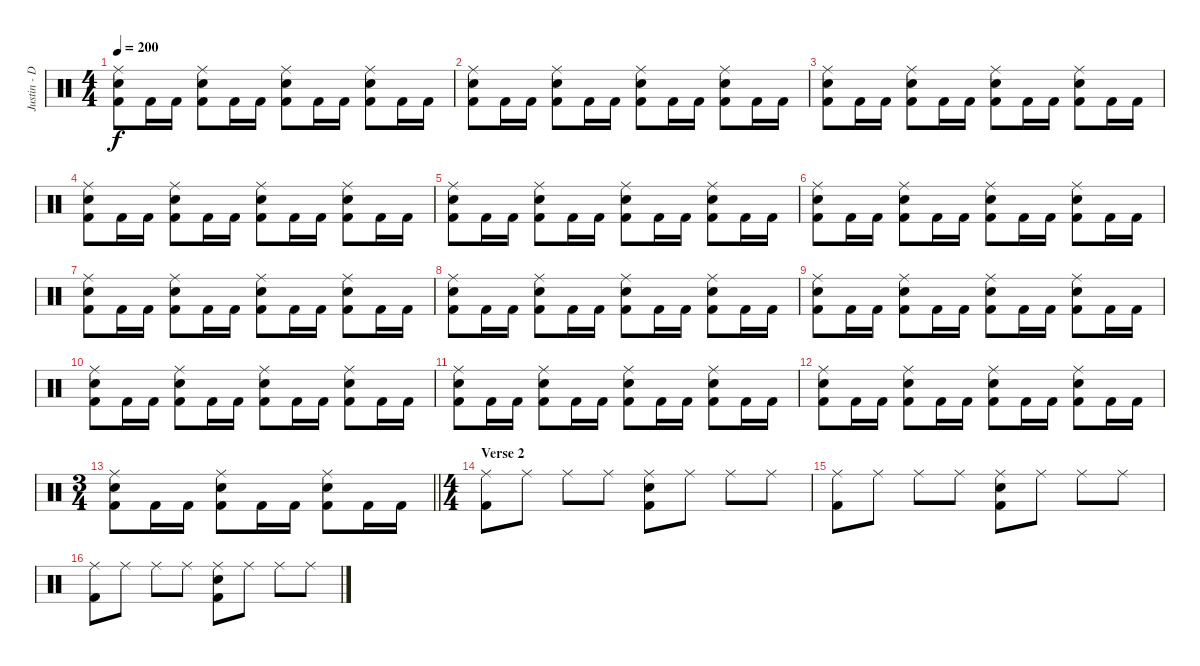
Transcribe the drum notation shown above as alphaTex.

\track ("Justin - Drums" "Justin - D") {instrument percussion}
\staff {score}
\articulation defaults
\ts (4 4)
\tempo 200
\clef neutral
\ks c
("Ride (middle)" "Snare (hit) 2" "Kick (hit) 2").8{dy f} "Kick (hit) 2".16 "Kick (hit) 2".16 ("Ride (middle)" "Snare (hit) 2" "Kick (hit) 2").8 "Kick (hit) 2".16 "Kick (hit) 2".16 ("Ride (middle)" "Snare (hit) 2" "Kick (hit) 2").8 "Kick (hit) 2".16 "Kick (hit) 2".16 ("Ride (middle)" "Snare (hit) 2" "Kick (hit) 2").8 "Kick (hit) 2".16 "Kick (hit) 2".16 |
("Ride (middle)" "Snare (hit) 2" "Kick (hit) 2").8 "Kick (hit) 2".16 "Kick (hit) 2".16 ("Ride (middle)" "Snare (hit) 2" "Kick (hit) 2").8 "Kick (hit) 2".16 "Kick (hit) 2".16 ("Ride (middle)" "Snare (hit) 2" "Kick (hit) 2").8 "Kick (hit) 2".16 "Kick (hit) 2".16 ("Ride (middle)" "Snare (hit) 2" "Kick (hit) 2").8 "Kick (hit) 2".16 "Kick (hit) 2".16 |
("Ride (middle)" "Snare (hit) 2" "Kick (hit) 2").8 "Kick (hit) 2".16 "Kick (hit) 2".16 ("Ride (middle)" "Snare (hit) 2" "Kick (hit) 2").8 "Kick (hit) 2".16 "Kick (hit) 2".16 ("Ride (middle)" "Snare (hit) 2" "Kick (hit) 2").8 "Kick (hit) 2".16 "Kick (hit) 2".16 ("Ride (middle)" "Snare (hit) 2" "Kick (hit) 2").8 "Kick (hit) 2".16 "Kick (hit) 2".16 |
("Ride (middle)" "Snare (hit) 2" "Kick (hit) 2").8 "Kick (hit) 2".16 "Kick (hit) 2".16 ("Ride (middle)" "Snare (hit) 2" "Kick (hit) 2").8 "Kick (hit) 2".16 "Kick (hit) 2".16 ("Ride (middle)" "Snare (hit) 2" "Kick (hit) 2").8 "Kick (hit) 2".16 "Kick (hit) 2".16 ("Ride (middle)" "Snare (hit) 2" "Kick (hit) 2").8 "Kick (hit) 2".16 "Kick (hit) 2".16 |
("Ride (middle)" "Snare (hit) 2" "Kick (hit) 2").8 "Kick (hit) 2".16 "Kick (hit) 2".16 ("Ride (middle)" "Snare (hit) 2" "Kick (hit) 2").8 "Kick (hit) 2".16 "Kick (hit) 2".16 ("Ride (middle)" "Snare (hit) 2" "Kick (hit) 2").8 "Kick (hit) 2".16 "Kick (hit) 2".16 ("Ride (middle)" "Snare (hit) 2" "Kick (hit) 2").8 "Kick (hit) 2".16 "Kick (hit) 2".16 |
("Ride (middle)" "Snare (hit) 2" "Kick (hit) 2").8 "Kick (hit) 2".16 "Kick (hit) 2".16 ("Ride (middle)" "Snare (hit) 2" "Kick (hit) 2").8 "Kick (hit) 2".16 "Kick (hit) 2".16 ("Ride (middle)" "Snare (hit) 2" "Kick (hit) 2").8 "Kick (hit) 2".16 "Kick (hit) 2".16 ("Ride (middle)" "Snare (hit) 2" "Kick (hit) 2").8 "Kick (hit) 2".16 "Kick (hit) 2".16 |
("Ride (middle)" "Snare (hit) 2" "Kick (hit) 2").8 "Kick (hit) 2".16 "Kick (hit) 2".16 ("Ride (middle)" "Snare (hit) 2" "Kick (hit) 2").8 "Kick (hit) 2".16 "Kick (hit) 2".16 ("Ride (middle)" "Snare (hit) 2" "Kick (hit) 2").8 "Kick (hit) 2".16 "Kick (hit) 2".16 ("Ride (middle)" "Snare (hit) 2" "Kick (hit) 2").8 "Kick (hit) 2".16 "Kick (hit) 2".16 |
("Ride (middle)" "Snare (hit) 2" "Kick (hit) 2").8 "Kick (hit) 2".16 "Kick (hit) 2".16 ("Ride (middle)" "Snare (hit) 2" "Kick (hit) 2").8 "Kick (hit) 2".16 "Kick (hit) 2".16 ("Ride (middle)" "Snare (hit) 2" "Kick (hit) 2").8 "Kick (hit) 2".16 "Kick (hit) 2".16 ("Ride (middle)" "Snare (hit) 2" "Kick (hit) 2").8 "Kick (hit) 2".16 "Kick (hit) 2".16 |
("Ride (middle)" "Snare (hit) 2" "Kick (hit) 2").8 "Kick (hit) 2".16 "Kick (hit) 2".16 ("Ride (middle)" "Snare (hit) 2" "Kick (hit) 2").8 "Kick (hit) 2".16 "Kick (hit) 2".16 ("Ride (middle)" "Snare (hit) 2" "Kick (hit) 2").8 "Kick (hit) 2".16 "Kick (hit) 2".16 ("Ride (middle)" "Snare (hit) 2" "Kick (hit) 2").8 "Kick (hit) 2".16 "Kick (hit) 2".16 |
("Ride (middle)" "Snare (hit) 2" "Kick (hit) 2").8 "Kick (hit) 2".16 "Kick (hit) 2".16 ("Ride (middle)" "Snare (hit) 2" "Kick (hit) 2").8 "Kick (hit) 2".16 "Kick (hit) 2".16 ("Ride (middle)" "Snare (hit) 2" "Kick (hit) 2").8 "Kick (hit) 2".16 "Kick (hit) 2".16 ("Ride (middle)" "Snare (hit) 2" "Kick (hit) 2").8 "Kick (hit) 2".16 "Kick (hit) 2".16 |
("Ride (middle)" "Snare (hit) 2" "Kick (hit) 2").8 "Kick (hit) 2".16 "Kick (hit) 2".16 ("Ride (middle)" "Snare (hit) 2" "Kick (hit) 2").8 "Kick (hit) 2".16 "Kick (hit) 2".16 ("Ride (middle)" "Snare (hit) 2" "Kick (hit) 2").8 "Kick (hit) 2".16 "Kick (hit) 2".16 ("Ride (middle)" "Snare (hit) 2" "Kick (hit) 2").8 "Kick (hit) 2".16 "Kick (hit) 2".16 |
("Ride (middle)" "Snare (hit) 2" "Kick (hit) 2").8 "Kick (hit) 2".16 "Kick (hit) 2".16 ("Ride (middle)" "Snare (hit) 2" "Kick (hit) 2").8 "Kick (hit) 2".16 "Kick (hit) 2".16 ("Ride (middle)" "Snare (hit) 2" "Kick (hit) 2").8 "Kick (hit) 2".16 "Kick (hit) 2".16 ("Ride (middle)" "Snare (hit) 2" "Kick (hit) 2").8 "Kick (hit) 2".16 "Kick (hit) 2".16 |
\ts (3 4)
\barLineRight lightlight
("Ride (middle)" "Snare (hit) 2" "Kick (hit) 2").8 "Kick (hit) 2".16 "Kick (hit) 2".16 ("Ride (middle)" "Snare (hit) 2" "Kick (hit) 2").8 "Kick (hit) 2".16 "Kick (hit) 2".16 ("Ride (middle)" "Snare (hit) 2" "Kick (hit) 2").8 "Kick (hit) 2".16 "Kick (hit) 2".16 |
\ts (4 4)
\section ("" "Verse 2")
("Ride (middle)" "Kick (hit) 2").8 "Ride (middle)".8 "Ride (middle)".8 "Ride (middle)".8 ("Ride (middle)" "Snare (hit) 2" "Kick (hit) 2").8 "Ride (middle)".8 "Ride (middle)".8 "Ride (middle)".8 |
("Ride (middle)" "Kick (hit) 2").8 "Ride (middle)".8 "Ride (middle)".8 "Ride (middle)".8 ("Ride (middle)" "Snare (hit) 2" "Kick (hit) 2").8 "Ride (middle)".8 "Ride (middle)".8 "Ride (middle)".8 |
("Ride (middle)" "Kick (hit) 2").8 "Ride (middle)".8 "Ride (middle)".8 "Ride (middle)".8 ("Ride (middle)" "Snare (hit) 2" "Kick (hit) 2").8 "Ride (middle)".8 "Ride (middle)".8 "Ride (middle)".8
